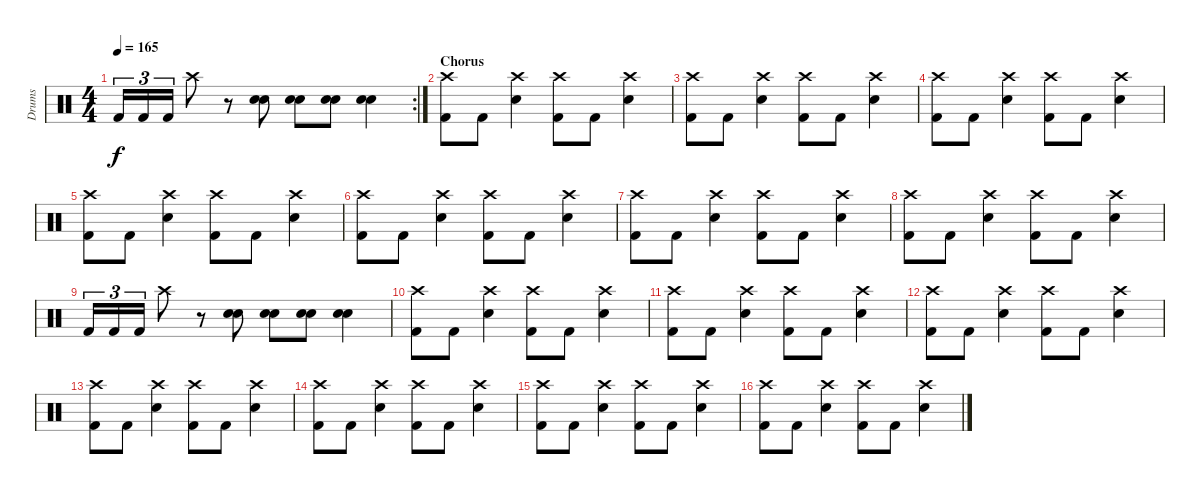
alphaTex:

\track ("Drums" "Drums") {instrument percussion}
\staff {score}
\articulation defaults
\rc 2
\ts (4 4)
\tempo 165
\clef neutral
\ks c "Kick (hit) 2".16{tu (3 2) dy f} "Kick (hit) 2".16{tu (3 2)} "Kick (hit) 2".16{tu (3 2)} "Crash high (hit)".8
r.8 ("Snare (hit) 2" "Snare (hit) 2").8 ("Snare (hit) 2" "Snare (hit) 2").8 ("Snare (hit) 2" "Snare (hit) 2").8 ("Snare (hit) 2" "Snare (hit) 2").4 |
\section ("" "Chorus")
("Crash high (hit)" "Kick (hit) 2").8 "Kick (hit) 2".8 ("Crash high (hit)" "Snare (hit) 2").4 ("Crash high (hit)" "Kick (hit) 2").8 "Kick (hit) 2".8 ("Crash high (hit)" "Snare (hit) 2").4 |
("Crash high (hit)" "Kick (hit) 2").8 "Kick (hit) 2".8 ("Crash high (hit)" "Snare (hit) 2").4 ("Crash high (hit)" "Kick (hit) 2").8 "Kick (hit) 2".8 ("Crash high (hit)" "Snare (hit) 2").4 |
("Crash high (hit)" "Kick (hit) 2").8 "Kick (hit) 2".8 ("Crash high (hit)" "Snare (hit) 2").4 ("Crash high (hit)" "Kick (hit) 2").8 "Kick (hit) 2".8 ("Crash high (hit)" "Snare (hit) 2").4 |
("Crash high (hit)" "Kick (hit) 2").8 "Kick (hit) 2".8 ("Crash high (hit)" "Snare (hit) 2").4 ("Crash high (hit)" "Kick (hit) 2").8 "Kick (hit) 2".8 ("Crash high (hit)" "Snare (hit) 2").4 |
("Crash high (hit)" "Kick (hit) 2").8 "Kick (hit) 2".8 ("Crash high (hit)" "Snare (hit) 2").4 ("Crash high (hit)" "Kick (hit) 2").8 "Kick (hit) 2".8 ("Crash high (hit)" "Snare (hit) 2").4 |
("Crash high (hit)" "Kick (hit) 2").8 "Kick (hit) 2".8 ("Crash high (hit)" "Snare (hit) 2").4 ("Crash high (hit)" "Kick (hit) 2").8 "Kick (hit) 2".8 ("Crash high (hit)" "Snare (hit) 2").4 |
("Crash high (hit)" "Kick (hit) 2").8 "Kick (hit) 2".8 ("Crash high (hit)" "Snare (hit) 2").4 ("Crash high (hit)" "Kick (hit) 2").8 "Kick (hit) 2".8 ("Crash high (hit)" "Snare (hit) 2").4 |
"Kick (hit) 2".16{tu (3 2)} "Kick (hit) 2".16{tu (3 2)} "Kick (hit) 2".16{tu (3 2)} "Crash high (hit)".8 r.8 ("Snare (hit) 2" "Snare (hit) 2").8 ("Snare (hit) 2" "Snare (hit) 2").8 ("Snare (hit) 2" "Snare (hit) 2").8 ("Snare (hit) 2" "Snare (hit) 2").4 |
("Crash high (hit)" "Kick (hit) 2").8 "Kick (hit) 2".8 ("Crash high (hit)" "Snare (hit) 2").4 ("Crash high (hit)" "Kick (hit) 2").8 "Kick (hit) 2".8 ("Crash high (hit)" "Snare (hit) 2").4 |
("Crash high (hit)" "Kick (hit) 2").8 "Kick (hit) 2".8 ("Crash high (hit)" "Snare (hit) 2").4 ("Crash high (hit)" "Kick (hit) 2").8 "Kick (hit) 2".8 ("Crash high (hit)" "Snare (hit) 2").4 |
("Crash high (hit)" "Kick (hit) 2").8 "Kick (hit) 2".8 ("Crash high (hit)" "Snare (hit) 2").4 ("Crash high (hit)" "Kick (hit) 2").8 "Kick (hit) 2".8 ("Crash high (hit)" "Snare (hit) 2").4 |
("Crash high (hit)" "Kick (hit) 2").8 "Kick (hit) 2".8 ("Crash high (hit)" "Snare (hit) 2").4 ("Crash high (hit)" "Kick (hit) 2").8 "Kick (hit) 2".8 ("Crash high (hit)" "Snare (hit) 2").4 |
("Crash high (hit)" "Kick (hit) 2").8 "Kick (hit) 2".8 ("Crash high (hit)" "Snare (hit) 2").4 ("Crash high (hit)" "Kick (hit) 2").8 "Kick (hit) 2".8 ("Crash high (hit)" "Snare (hit) 2").4 |
("Crash high (hit)" "Kick (hit) 2").8 "Kick (hit) 2".8 ("Crash high (hit)" "Snare (hit) 2").4 ("Crash high (hit)" "Kick (hit) 2").8 "Kick (hit) 2".8 ("Crash high (hit)" "Snare (hit) 2").4 |
("Crash high (hit)" "Kick (hit) 2").8 "Kick (hit) 2".8 ("Crash high (hit)" "Snare (hit) 2").4 ("Crash high (hit)" "Kick (hit) 2").8 "Kick (hit) 2".8 ("Crash high (hit)" "Snare (hit) 2").4
